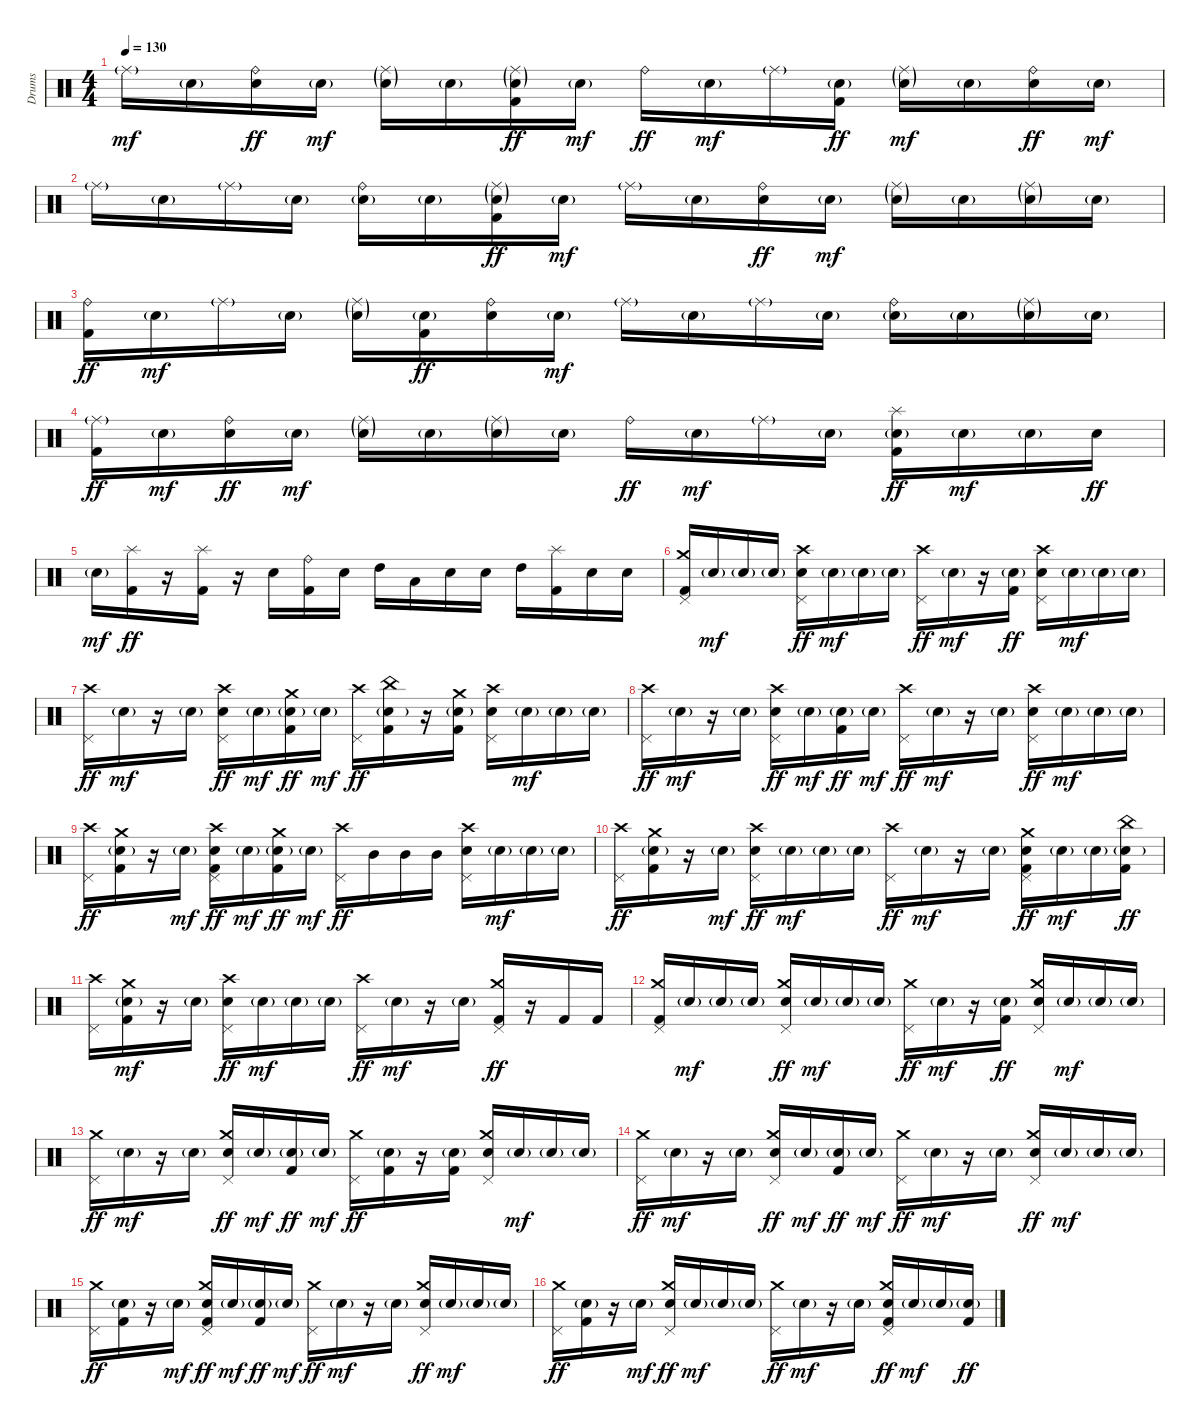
\track ("Drums" "Drums") {instrument percussion}
\staff {score}
\articulation defaults
\ts (4 4)
\tempo 130
\clef neutral
\ks c "Ride (middle)"{g}.16{dy mf} "Electric Snare (hit)"{g}.16
("Ride (bell)" "Electric Snare (hit)").16{dy ff} "Electric Snare (hit)"{g}.16{dy mf} ("Ride (middle)"{g} "Electric Snare (hit)"{g}).16 "Electric Snare (hit)"{g}.16 ("Ride (middle)"{g} "Electric Snare (hit)"{g} "Kick (hit) 2").16{dy ff} "Electric Snare (hit)"{g}.16{dy mf} "Ride (bell)".16{dy ff} "Electric Snare (hit)"{g}.16{dy mf} "Ride (middle)"{g}.16 ("Electric Snare (hit)"{g} "Kick (hit) 2").16{dy ff} ("Ride (middle)"{g} "Electric Snare (hit)"{g}).16{dy mf} "Electric Snare (hit)"{g}.16 ("Ride (bell)" "Electric Snare (hit)").16{dy ff} "Electric Snare (hit)"{g}.16{dy mf} |
"Ride (middle)"{g}.16 "Electric Snare (hit)"{g}.16 "Ride (middle)"{g}.16 "Electric Snare (hit)"{g}.16 ("Ride (bell)" "Electric Snare (hit)"{g}).16 "Electric Snare (hit)"{g}.16 ("Ride (middle)"{g} "Electric Snare (hit)"{g} "Kick (hit) 2").16{dy ff} "Electric Snare (hit)"{g}.16{dy mf} "Ride (middle)"{g}.16 "Electric Snare (hit)"{g}.16 ("Ride (bell)" "Electric Snare (hit)").16{dy ff} "Electric Snare (hit)"{g}.16{dy mf} ("Ride (middle)"{g} "Electric Snare (hit)"{g}).16 "Electric Snare (hit)"{g}.16 ("Ride (middle)"{g} "Electric Snare (hit)"{g}).16 "Electric Snare (hit)"{g}.16 |
("Ride (bell)" "Kick (hit) 2").16{dy ff} "Electric Snare (hit)"{g}.16{dy mf} "Ride (middle)"{g}.16 "Electric Snare (hit)"{g}.16 ("Ride (middle)"{g} "Electric Snare (hit)"{g}).16 ("Electric Snare (hit)"{g} "Kick (hit) 2").16{dy ff} ("Ride (bell)" "Electric Snare (hit)").16 "Electric Snare (hit)"{g}.16{dy mf} "Ride (middle)"{g}.16 "Electric Snare (hit)"{g}.16 "Ride (middle)"{g}.16 "Electric Snare (hit)"{g}.16 ("Ride (bell)" "Electric Snare (hit)"{g}).16 "Electric Snare (hit)"{g}.16 ("Ride (middle)"{g} "Electric Snare (hit)"{g}).16 "Electric Snare (hit)"{g}.16 |
("Ride (middle)"{g} "Kick (hit) 2").16{dy ff} "Electric Snare (hit)"{g}.16{dy mf} ("Ride (bell)" "Electric Snare (hit)").16{dy ff} "Electric Snare (hit)"{g}.16{dy mf} ("Ride (middle)"{g} "Electric Snare (hit)"{g}).16 "Electric Snare (hit)"{g}.16 ("Ride (middle)"{g} "Electric Snare (hit)"{g}).16 "Electric Snare (hit)"{g}.16 "Ride (bell)".16{dy ff} "Electric Snare (hit)"{g}.16{dy mf} "Ride (middle)"{g}.16 "Electric Snare (hit)"{g}.16 ("Splash (hit)" "Electric Snare (hit)"{g} "Kick (hit) 2").16{dy ff} "Electric Snare (hit)"{g}.16{dy mf} "Electric Snare (hit)"{g}.16 "Electric Snare (hit)".16{dy ff} |
"Electric Snare (hit)"{g}.16{dy mf} ("Splash (hit)" "Kick (hit) 2").16{dy ff} r.16 ("Splash (hit)" "Kick (hit) 2").16 r.16 "Electric Snare (hit)".16 ("Ride (bell)" "Kick (hit) 2").16 "Electric Snare (hit)".16 "High Tom (hit)".16 "Low Tom (hit)".16 "Electric Snare (hit)".16 "Electric Snare (hit)".16 "High Tom (hit)".16 ("Splash (hit)" "Kick (hit) 2").16 "Electric Snare (hit)".16 "Electric Snare (hit)".16 |
("Crash medium (hit)" "Pedal Hi-Hat (hit)" "Kick (hit) 2").16 "Electric Snare (hit)"{g}.16{dy mf} "Electric Snare (hit)"{g}.16 "Electric Snare (hit)"{g}.16 ("Crash high (hit)" "Pedal Hi-Hat (hit)" "Electric Snare (hit)").16{dy ff} "Electric Snare (hit)"{g}.16{dy mf} "Electric Snare (hit)"{g}.16 "Electric Snare (hit)"{g}.16 ("Crash high (hit)" "Pedal Hi-Hat (hit)").16{dy ff} "Electric Snare (hit)"{g}.16{dy mf} r.16 ("Electric Snare (hit)"{g} "Kick (hit) 2").16{dy ff} ("Crash high (hit)" "Pedal Hi-Hat (hit)" "Electric Snare (hit)").16 "Electric Snare (hit)"{g}.16{dy mf} "Electric Snare (hit)"{g}.16 "Electric Snare (hit)"{g}.16 |
("Crash high (hit)" "Pedal Hi-Hat (hit)").16{dy ff} "Electric Snare (hit)"{g}.16{dy mf} r.16 "Electric Snare (hit)"{g}.16 ("Crash high (hit)" "Pedal Hi-Hat (hit)" "Electric Snare (hit)").16{dy ff} "Electric Snare (hit)"{g}.16{dy mf} ("Crash medium (hit)" "Electric Snare (hit)"{g} "Kick (hit) 2").16{dy ff} "Electric Snare (hit)"{g}.16{dy mf} ("Crash high (hit)" "Pedal Hi-Hat (hit)").16{dy ff} ("China (hit)" "Electric Snare (hit)"{g} "Kick (hit) 2").16 r.16 ("Crash medium (hit)" "Electric Snare (hit)"{g} "Kick (hit) 2").16 ("Crash high (hit)" "Pedal Hi-Hat (hit)" "Electric Snare (hit)").16 "Electric Snare (hit)"{g}.16{dy mf} "Electric Snare (hit)"{g}.16 "Electric Snare (hit)"{g}.16 |
("Crash high (hit)" "Pedal Hi-Hat (hit)").16{dy ff} "Electric Snare (hit)"{g}.16{dy mf} r.16 "Electric Snare (hit)"{g}.16 ("Crash high (hit)" "Pedal Hi-Hat (hit)" "Electric Snare (hit)").16{dy ff} "Electric Snare (hit)"{g}.16{dy mf} ("Electric Snare (hit)"{g} "Kick (hit) 2").16{dy ff} "Electric Snare (hit)"{g}.16{dy mf} ("Crash high (hit)" "Pedal Hi-Hat (hit)").16{dy ff} "Electric Snare (hit)"{g}.16{dy mf} r.16 "Electric Snare (hit)"{g}.16 ("Crash high (hit)" "Pedal Hi-Hat (hit)" "Electric Snare (hit)").16{dy ff} "Electric Snare (hit)"{g}.16{dy mf} "Electric Snare (hit)"{g}.16 "Electric Snare (hit)"{g}.16 |
("Crash high (hit)" "Pedal Hi-Hat (hit)").16{dy ff} ("Crash medium (hit)" "Electric Snare (hit)"{g} "Kick (hit) 2").16 r.16 "Electric Snare (hit)"{g}.16{dy mf} ("Crash high (hit)" "Pedal Hi-Hat (hit)" "Electric Snare (hit)" "Kick (hit) 2").16{dy ff} "Electric Snare (hit)"{g}.16{dy mf} ("Crash medium (hit)" "Electric Snare (hit)"{g} "Kick (hit) 2").16{dy ff} "Electric Snare (hit)"{g}.16{dy mf} ("Crash high (hit)" "Pedal Hi-Hat (hit)").16{dy ff} "Mid Tom (hit)".16 "Mid Tom (hit)".16 "Mid Tom (hit)".16 ("Crash high (hit)" "Pedal Hi-Hat (hit)" "Electric Snare (hit)").16 "Electric Snare (hit)"{g}.16{dy mf} "Electric Snare (hit)"{g}.16 "Electric Snare (hit)"{g}.16 |
("Crash high (hit)" "Pedal Hi-Hat (hit)").16{dy ff} ("Crash medium (hit)" "Electric Snare (hit)"{g} "Kick (hit) 2").16 r.16 "Electric Snare (hit)"{g}.16{dy mf} ("Crash high (hit)" "Pedal Hi-Hat (hit)" "Electric Snare (hit)").16{dy ff} "Electric Snare (hit)"{g}.16{dy mf} "Electric Snare (hit)"{g}.16 "Electric Snare (hit)"{g}.16 ("Crash high (hit)" "Pedal Hi-Hat (hit)").16{dy ff} "Electric Snare (hit)"{g}.16{dy mf} r.16 "Electric Snare (hit)"{g}.16 ("Crash medium (hit)" "Pedal Hi-Hat (hit)" "Electric Snare (hit)" "Kick (hit) 2").16{dy ff} "Electric Snare (hit)"{g}.16{dy mf} "Electric Snare (hit)"{g}.16 ("China (hit)" "Electric Snare (hit)"{g} "Kick (hit) 2").16{dy ff} |
("Crash high (hit)" "Pedal Hi-Hat (hit)").16 ("Crash medium (hit)" "Electric Snare (hit)"{g} "Kick (hit) 2").16{dy mf} r.16 "Electric Snare (hit)"{g}.16 ("Crash high (hit)" "Pedal Hi-Hat (hit)" "Electric Snare (hit)").16{dy ff} "Electric Snare (hit)"{g}.16{dy mf} "Electric Snare (hit)"{g}.16 "Electric Snare (hit)"{g}.16 ("Crash high (hit)" "Pedal Hi-Hat (hit)").16{dy ff} "Electric Snare (hit)"{g}.16{dy mf} r.16 "Electric Snare (hit)"{g}.16 ("Crash medium (hit)" "Pedal Hi-Hat (hit)" "Kick (hit) 2").16{dy ff} r.16 "Kick (hit) 2".16 "Kick (hit) 2".16 |
("Crash medium (hit)" "Pedal Hi-Hat (hit)" "Kick (hit) 2").16 "Electric Snare (hit)"{g}.16{dy mf} "Electric Snare (hit)"{g}.16 "Electric Snare (hit)"{g}.16 ("Crash medium (hit)" "Pedal Hi-Hat (hit)" "Electric Snare (hit)").16{dy ff} "Electric Snare (hit)"{g}.16{dy mf} "Electric Snare (hit)"{g}.16 "Electric Snare (hit)"{g}.16 ("Crash medium (hit)" "Pedal Hi-Hat (hit)").16{dy ff} "Electric Snare (hit)"{g}.16{dy mf} r.16 ("Electric Snare (hit)"{g} "Kick (hit) 2").16{dy ff} ("Crash medium (hit)" "Pedal Hi-Hat (hit)" "Electric Snare (hit)").16 "Electric Snare (hit)"{g}.16{dy mf} "Electric Snare (hit)"{g}.16 "Electric Snare (hit)"{g}.16 |
("Crash medium (hit)" "Pedal Hi-Hat (hit)").16{dy ff} "Electric Snare (hit)"{g}.16{dy mf} r.16 "Electric Snare (hit)"{g}.16 ("Crash medium (hit)" "Pedal Hi-Hat (hit)" "Electric Snare (hit)").16{dy ff} "Electric Snare (hit)"{g}.16{dy mf} ("Electric Snare (hit)"{g} "Kick (hit) 2").16{dy ff} "Electric Snare (hit)"{g}.16{dy mf} ("Crash medium (hit)" "Pedal Hi-Hat (hit)").16{dy ff} ("Electric Snare (hit)"{g} "Kick (hit) 2").16 r.16 ("Electric Snare (hit)"{g} "Kick (hit) 2").16 ("Crash medium (hit)" "Pedal Hi-Hat (hit)" "Electric Snare (hit)").16 "Electric Snare (hit)"{g}.16{dy mf} "Electric Snare (hit)"{g}.16 "Electric Snare (hit)"{g}.16 |
("Crash medium (hit)" "Pedal Hi-Hat (hit)").16{dy ff} "Electric Snare (hit)"{g}.16{dy mf} r.16 "Electric Snare (hit)"{g}.16 ("Crash medium (hit)" "Pedal Hi-Hat (hit)" "Electric Snare (hit)").16{dy ff} "Electric Snare (hit)"{g}.16{dy mf} ("Electric Snare (hit)"{g} "Kick (hit) 2").16{dy ff} "Electric Snare (hit)"{g}.16{dy mf} ("Crash medium (hit)" "Pedal Hi-Hat (hit)").16{dy ff} "Electric Snare (hit)"{g}.16{dy mf} r.16 "Electric Snare (hit)"{g}.16 ("Crash medium (hit)" "Pedal Hi-Hat (hit)" "Electric Snare (hit)").16{dy ff} "Electric Snare (hit)"{g}.16{dy mf} "Electric Snare (hit)"{g}.16 "Electric Snare (hit)"{g}.16 |
("Crash medium (hit)" "Pedal Hi-Hat (hit)").16{dy ff} ("Electric Snare (hit)"{g} "Kick (hit) 2").16 r.16 "Electric Snare (hit)"{g}.16{dy mf} ("Crash medium (hit)" "Pedal Hi-Hat (hit)" "Electric Snare (hit)" "Kick (hit) 2").16{dy ff} "Electric Snare (hit)"{g}.16{dy mf} ("Electric Snare (hit)"{g} "Kick (hit) 2").16{dy ff} "Electric Snare (hit)"{g}.16{dy mf} ("Crash medium (hit)" "Pedal Hi-Hat (hit)").16{dy ff} "Electric Snare (hit)"{g}.16{dy mf} r.16 "Electric Snare (hit)"{g}.16 ("Crash medium (hit)" "Pedal Hi-Hat (hit)" "Electric Snare (hit)").16{dy ff} "Electric Snare (hit)"{g}.16{dy mf} "Electric Snare (hit)"{g}.16 "Electric Snare (hit)"{g}.16 |
("Crash medium (hit)" "Pedal Hi-Hat (hit)").16{dy ff} ("Electric Snare (hit)"{g} "Kick (hit) 2").16 r.16 "Electric Snare (hit)"{g}.16{dy mf} ("Crash medium (hit)" "Pedal Hi-Hat (hit)" "Electric Snare (hit)").16{dy ff} "Electric Snare (hit)"{g}.16{dy mf} "Electric Snare (hit)"{g}.16 "Electric Snare (hit)"{g}.16 ("Crash medium (hit)" "Pedal Hi-Hat (hit)").16{dy ff} "Electric Snare (hit)"{g}.16{dy mf} r.16 "Electric Snare (hit)"{g}.16 ("Crash medium (hit)" "Pedal Hi-Hat (hit)" "Electric Snare (hit)" "Kick (hit) 2").16{dy ff} "Electric Snare (hit)"{g}.16{dy mf} "Electric Snare (hit)"{g}.16 ("Electric Snare (hit)"{g} "Kick (hit) 2").16{dy ff}
